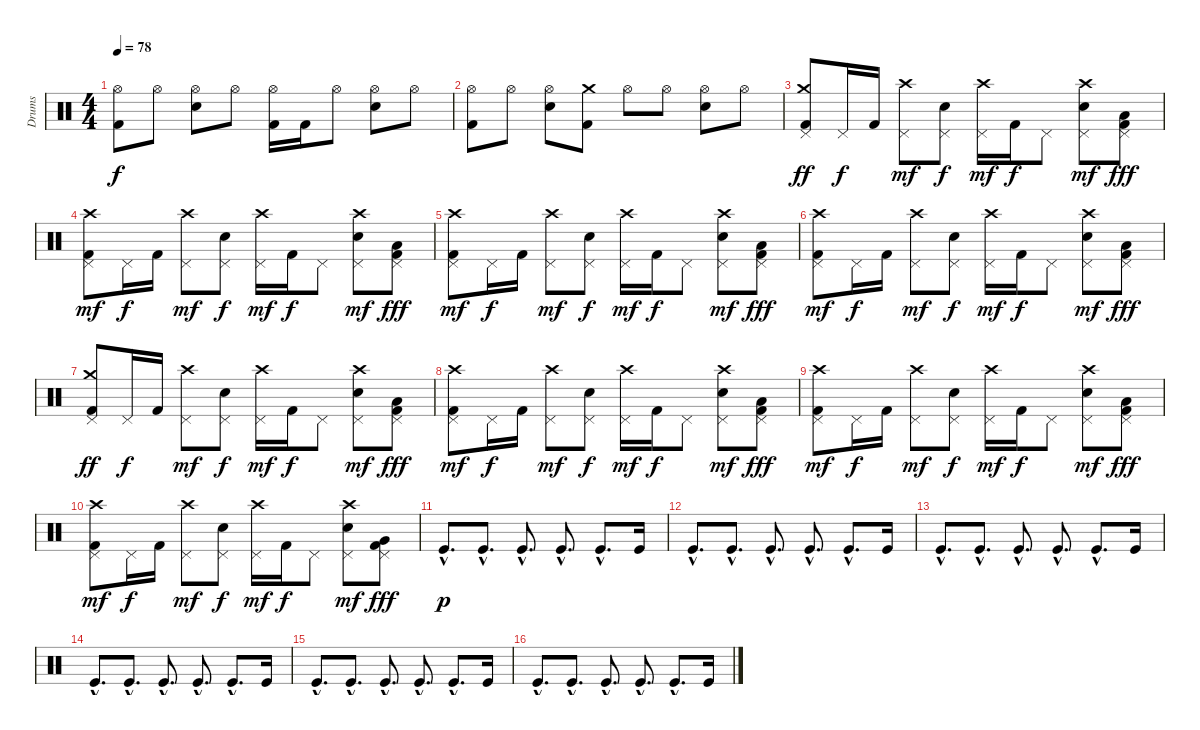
\track ("Drums" "Drums") {instrument percussion}
\staff {score}
\articulation defaults
\ts (4 4)
\tempo 78
\clef neutral
\ks c
("Kick (hit) 2" "Hi-Hat (open)").8{dy f} "Hi-Hat (open)".8 ("Electric Snare (hit)" "Hi-Hat (open)").8 "Hi-Hat (open)".8 ("Kick (hit) 2" "Hi-Hat (open)").16 "Kick (hit) 2".16 "Hi-Hat (open)".8 ("Electric Snare (hit)" "Hi-Hat (open)").8 "Hi-Hat (open)".8 |
("Kick (hit) 2" "Hi-Hat (open)").8 "Hi-Hat (open)".8 ("Electric Snare (hit)" "Hi-Hat (open)").8 ("Kick (hit) 2" "Crash medium (hit)").8 "Hi-Hat (open)".8 "Hi-Hat (open)".8 ("Electric Snare (hit)" "Hi-Hat (open)").8 "Hi-Hat (open)".8 |
("Kick (hit) 2" "Pedal Hi-Hat (hit)" "Crash medium (hit)").8{dy ff} "Pedal Hi-Hat (hit)".16{dy f} "Kick (hit) 2".16 ("Pedal Hi-Hat (hit)" "Crash high (hit)").8{dy mf} ("Electric Snare (hit)" "Pedal Hi-Hat (hit)").8{dy f} ("Pedal Hi-Hat (hit)" "Crash high (hit)").16{dy mf} "Kick (hit) 2".16{dy f} "Pedal Hi-Hat (hit)".8 ("Electric Snare (hit)" "Pedal Hi-Hat (hit)" "Crash high (hit)").8{dy mf} ("Kick (hit) 2" "Low Floor Tom (hit)" "Pedal Hi-Hat (hit)").8{dy fff} |
("Kick (hit) 2" "Pedal Hi-Hat (hit)" "Crash high (hit)").8{dy mf} "Pedal Hi-Hat (hit)".16{dy f} "Kick (hit) 2".16 ("Pedal Hi-Hat (hit)" "Crash high (hit)").8{dy mf} ("Electric Snare (hit)" "Pedal Hi-Hat (hit)").8{dy f} ("Pedal Hi-Hat (hit)" "Crash high (hit)").16{dy mf} "Kick (hit) 2".16{dy f} "Pedal Hi-Hat (hit)".8 ("Electric Snare (hit)" "Pedal Hi-Hat (hit)" "Crash high (hit)").8{dy mf} ("Kick (hit) 2" "Low Floor Tom (hit)" "Pedal Hi-Hat (hit)").8{dy fff} |
("Kick (hit) 2" "Pedal Hi-Hat (hit)" "Crash high (hit)").8{dy mf} "Pedal Hi-Hat (hit)".16{dy f} "Kick (hit) 2".16 ("Pedal Hi-Hat (hit)" "Crash high (hit)").8{dy mf} ("Electric Snare (hit)" "Pedal Hi-Hat (hit)").8{dy f} ("Pedal Hi-Hat (hit)" "Crash high (hit)").16{dy mf} "Kick (hit) 2".16{dy f} "Pedal Hi-Hat (hit)".8 ("Electric Snare (hit)" "Pedal Hi-Hat (hit)" "Crash high (hit)").8{dy mf} ("Kick (hit) 2" "Low Floor Tom (hit)" "Pedal Hi-Hat (hit)").8{dy fff} |
("Kick (hit) 2" "Pedal Hi-Hat (hit)" "Crash high (hit)").8{dy mf} "Pedal Hi-Hat (hit)".16{dy f} "Kick (hit) 2".16 ("Pedal Hi-Hat (hit)" "Crash high (hit)").8{dy mf} ("Electric Snare (hit)" "Pedal Hi-Hat (hit)").8{dy f} ("Pedal Hi-Hat (hit)" "Crash high (hit)").16{dy mf} "Kick (hit) 2".16{dy f} "Pedal Hi-Hat (hit)".8 ("Electric Snare (hit)" "Pedal Hi-Hat (hit)" "Crash high (hit)").8{dy mf} ("Kick (hit) 2" "Low Floor Tom (hit)" "Pedal Hi-Hat (hit)").8{dy fff} |
("Kick (hit) 2" "Pedal Hi-Hat (hit)" "Crash medium (hit)").8{dy ff} "Pedal Hi-Hat (hit)".16{dy f} "Kick (hit) 2".16 ("Pedal Hi-Hat (hit)" "Crash high (hit)").8{dy mf} ("Electric Snare (hit)" "Pedal Hi-Hat (hit)").8{dy f} ("Pedal Hi-Hat (hit)" "Crash high (hit)").16{dy mf} "Kick (hit) 2".16{dy f} "Pedal Hi-Hat (hit)".8 ("Electric Snare (hit)" "Pedal Hi-Hat (hit)" "Crash high (hit)").8{dy mf} ("Kick (hit) 2" "Low Floor Tom (hit)" "Pedal Hi-Hat (hit)").8{dy fff} |
("Kick (hit) 2" "Pedal Hi-Hat (hit)" "Crash high (hit)").8{dy mf} "Pedal Hi-Hat (hit)".16{dy f} "Kick (hit) 2".16 ("Pedal Hi-Hat (hit)" "Crash high (hit)").8{dy mf} ("Electric Snare (hit)" "Pedal Hi-Hat (hit)").8{dy f} ("Pedal Hi-Hat (hit)" "Crash high (hit)").16{dy mf} "Kick (hit) 2".16{dy f} "Pedal Hi-Hat (hit)".8 ("Electric Snare (hit)" "Pedal Hi-Hat (hit)" "Crash high (hit)").8{dy mf} ("Kick (hit) 2" "Low Floor Tom (hit)" "Pedal Hi-Hat (hit)").8{dy fff} |
("Kick (hit) 2" "Pedal Hi-Hat (hit)" "Crash high (hit)").8{dy mf} "Pedal Hi-Hat (hit)".16{dy f} "Kick (hit) 2".16 ("Pedal Hi-Hat (hit)" "Crash high (hit)").8{dy mf} ("Electric Snare (hit)" "Pedal Hi-Hat (hit)").8{dy f} ("Pedal Hi-Hat (hit)" "Crash high (hit)").16{dy mf} "Kick (hit) 2".16{dy f} "Pedal Hi-Hat (hit)".8 ("Electric Snare (hit)" "Pedal Hi-Hat (hit)" "Crash high (hit)").8{dy mf} ("Kick (hit) 2" "Low Floor Tom (hit)" "Pedal Hi-Hat (hit)").8{dy fff} |
("Kick (hit) 2" "Pedal Hi-Hat (hit)" "Crash high (hit)").8{dy mf} "Pedal Hi-Hat (hit)".16{dy f} "Kick (hit) 2".16 ("Pedal Hi-Hat (hit)" "Crash high (hit)").8{dy mf} ("Electric Snare (hit)" "Pedal Hi-Hat (hit)").8{dy f} ("Pedal Hi-Hat (hit)" "Crash high (hit)").16{dy mf} "Kick (hit) 2".16{dy f} "Pedal Hi-Hat (hit)".8 ("Electric Snare (hit)" "Pedal Hi-Hat (hit)" "Crash high (hit)").8{dy mf} ("Kick (hit) 2" "Very Low Tom (hit)" "Pedal Hi-Hat (hit)").8{dy fff} |
"Kick (hit)"{hac}.8{d dy p} "Kick (hit)"{hac}.8{d} "Kick (hit)"{hac}.8{d} "Kick (hit)"{hac}.8{d} "Kick (hit)"{hac}.8{d} "Kick (hit)".16 |
"Kick (hit)"{hac}.8{d} "Kick (hit)"{hac}.8{d} "Kick (hit)"{hac}.8{d} "Kick (hit)"{hac}.8{d} "Kick (hit)"{hac}.8{d} "Kick (hit)".16 |
"Kick (hit)"{hac}.8{d} "Kick (hit)"{hac}.8{d} "Kick (hit)"{hac}.8{d} "Kick (hit)"{hac}.8{d} "Kick (hit)"{hac}.8{d} "Kick (hit)".16 |
"Kick (hit)"{hac}.8{d} "Kick (hit)"{hac}.8{d} "Kick (hit)"{hac}.8{d} "Kick (hit)"{hac}.8{d} "Kick (hit)"{hac}.8{d} "Kick (hit)".16 |
"Kick (hit)"{hac}.8{d} "Kick (hit)"{hac}.8{d} "Kick (hit)"{hac}.8{d} "Kick (hit)"{hac}.8{d} "Kick (hit)"{hac}.8{d} "Kick (hit)".16 |
"Kick (hit)"{hac}.8{d} "Kick (hit)"{hac}.8{d} "Kick (hit)"{hac}.8{d} "Kick (hit)"{hac}.8{d} "Kick (hit)"{hac}.8{d} "Kick (hit)".16
